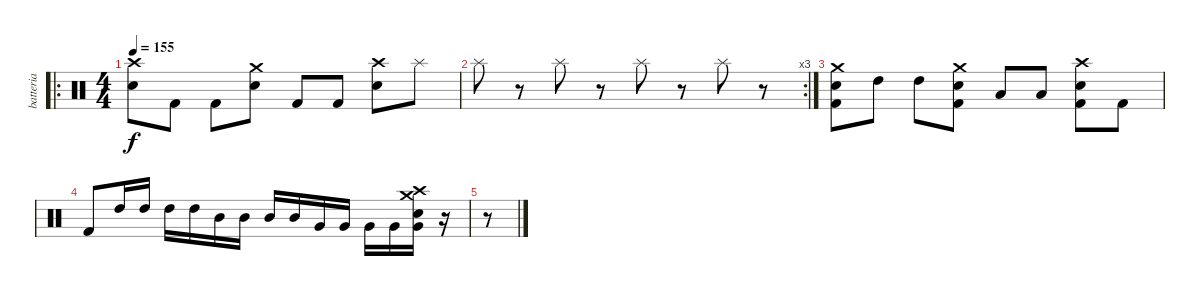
\track ("batteria" "batteria") {instrument percussion}
\staff {score}
\articulation defaults
\ro
\ts (4 4)
\tempo 155
\clef neutral
\ks c
("Crash high (hit)" "Electric Snare (hit)").8{dy f} "Kick (hit) 2".8 "Kick (hit) 2".8 ("Crash medium (hit)" "Electric Snare (hit)").8 "Kick (hit) 2".8 "Kick (hit) 2".8 ("Crash high (hit)" "Electric Snare (hit)").8 "Splash (hit)".8 |
\rc 3 "Splash (hit)".8
r.8 "Splash (hit)".8 r.8 "Splash (hit)".8 r.8 "Splash (hit)".8 r.8 |
("Crash medium (hit)" "Kick (hit) 2" "Electric Snare (hit)").8 "High Tom (hit)".8 "High Tom (hit)".8 ("Crash medium (hit)" "Kick (hit) 2" "Electric Snare (hit)").8 "Low Tom (hit)".8 "Low Tom (hit)".8 ("Crash high (hit)" "Kick (hit) 2" "Electric Snare (hit)").8 "Kick (hit) 2".8 |
"Kick (hit) 2".8 "High Tom (hit)".16 "High Tom (hit)".16 "High Tom (hit)".16 "High Tom (hit)".16 "Mid Tom (hit)".16 "Mid Tom (hit)".16 "Mid Tom (hit)".16 "Mid Tom (hit)".16 "Very Low Tom (hit)".16 "Very Low Tom (hit)".16 "Very Low Tom (hit)".16 "Very Low Tom (hit)".16 ("Crash high (hit)" "Crash medium (hit)" "Electric Snare (hit)" "Very Low Tom (hit)").16 r.16 |
r.8
